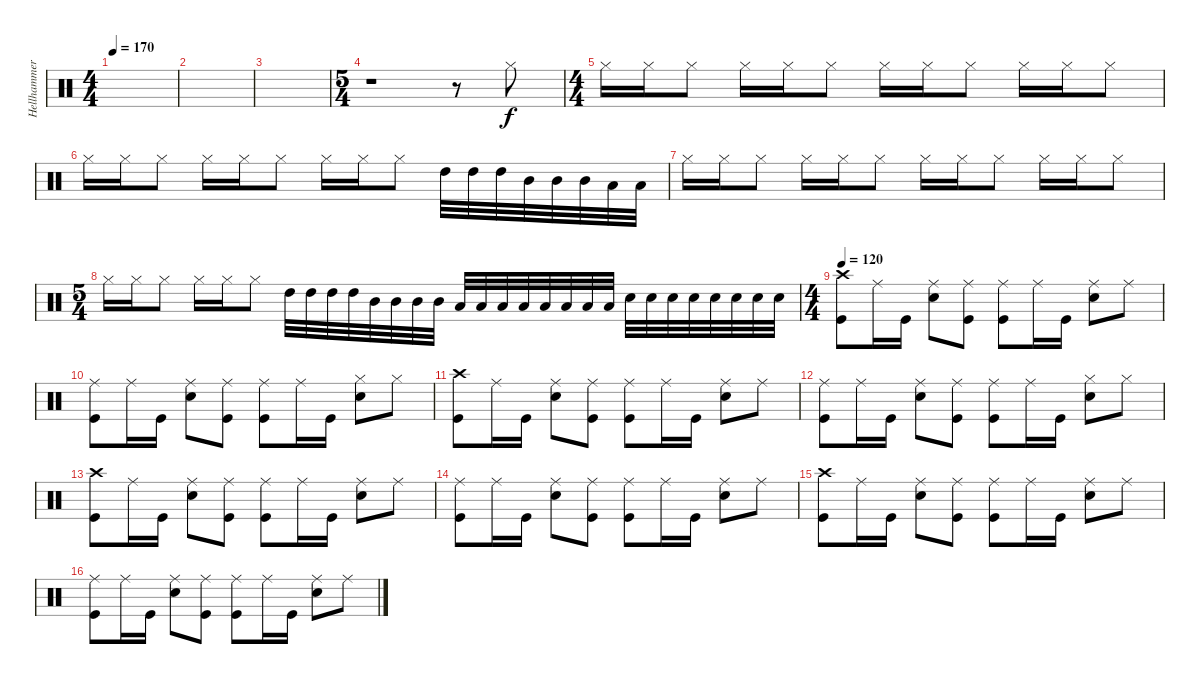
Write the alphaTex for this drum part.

\track ("Hellhammer" "Hellhammer") {instrument percussion}
\staff {score}
\articulation defaults
\ts (4 4)
\tempo 170
\clef neutral
\ks c
|
|
|
\ts (5 4)
r.1 r.8 "Hi-Hat (closed)".8 |
\ts (4 4)
"Hi-Hat (closed)".16 "Hi-Hat (closed)".16 "Hi-Hat (closed)".8 "Hi-Hat (closed)".16 "Hi-Hat (closed)".16 "Hi-Hat (closed)".8 "Hi-Hat (closed)".16 "Hi-Hat (closed)".16 "Hi-Hat (closed)".8 "Hi-Hat (closed)".16 "Hi-Hat (closed)".16 "Hi-Hat (closed)".8 |
"Hi-Hat (closed)".16 "Hi-Hat (closed)".16 "Hi-Hat (closed)".8 "Hi-Hat (closed)".16 "Hi-Hat (closed)".16 "Hi-Hat (closed)".8 "Hi-Hat (closed)".16 "Hi-Hat (closed)".16 "Hi-Hat (closed)".8 "High Tom (hit)".32 "High Tom (hit)".32 "High Tom (hit)".32 "Mid Tom (hit)".32 "Mid Tom (hit)".32 "Mid Tom (hit)".32 "Low Tom (hit)".32 "Low Tom (hit)".32 |
"Hi-Hat (closed)".16 "Hi-Hat (closed)".16 "Hi-Hat (closed)".8 "Hi-Hat (closed)".16 "Hi-Hat (closed)".16 "Hi-Hat (closed)".8 "Hi-Hat (closed)".16 "Hi-Hat (closed)".16 "Hi-Hat (closed)".8 "Hi-Hat (closed)".16 "Hi-Hat (closed)".16 "Hi-Hat (closed)".8 |
\ts (5 4)
"Hi-Hat (closed)".16 "Hi-Hat (closed)".16 "Hi-Hat (closed)".8 "Hi-Hat (closed)".16 "Hi-Hat (closed)".16 "Hi-Hat (closed)".8 "High Tom (hit)".32 "High Tom (hit)".32 "High Tom (hit)".32 "High Tom (hit)".32 "Mid Tom (hit)".32 "Mid Tom (hit)".32 "Mid Tom (hit)".32 "Mid Tom (hit)".32 "Low Tom (hit)".32 "Low Tom (hit)".32 "Low Tom (hit)".32 "Low Tom (hit)".32 "Low Tom (hit)".32 "Low Tom (hit)".32 "Low Tom (hit)".32 "Low Tom (hit)".32 "Electric Snare (hit)".32 "Electric Snare (hit)".32 "Electric Snare (hit)".32 "Electric Snare (hit)".32 "Electric Snare (hit)".32 "Electric Snare (hit)".32 "Electric Snare (hit)".32 "Electric Snare (hit)".32 |
\ts (4 4)
\tempo 120
("Crash high (hit)" "Kick (hit)").8 "Ride (middle)".16 "Kick (hit)".16 ("Ride (middle)" "Electric Snare (hit)").8 ("Ride (middle)" "Kick (hit)").8 ("Ride (middle)" "Kick (hit)").8 "Ride (middle)".16 "Kick (hit)".16 ("Ride (middle)" "Electric Snare (hit)").8 "Ride (middle)".8 |
("Ride (middle)" "Kick (hit)").8 "Ride (middle)".16 "Kick (hit)".16 ("Ride (middle)" "Electric Snare (hit)").8 ("Ride (middle)" "Kick (hit)").8 ("Ride (middle)" "Kick (hit)").8 "Ride (middle)".16 "Kick (hit)".16 ("Hi-Hat (closed)" "Electric Snare (hit)").8 "Hi-Hat (closed)".8 |
("Crash high (hit)" "Kick (hit)").8 "Ride (middle)".16 "Kick (hit)".16 ("Ride (middle)" "Electric Snare (hit)").8 ("Ride (middle)" "Kick (hit)").8 ("Ride (middle)" "Kick (hit)").8 "Ride (middle)".16 "Kick (hit)".16 ("Ride (middle)" "Electric Snare (hit)").8 "Ride (middle)".8 |
("Ride (middle)" "Kick (hit)").8 "Ride (middle)".16 "Kick (hit)".16 ("Ride (middle)" "Electric Snare (hit)").8 ("Ride (middle)" "Kick (hit)").8 ("Ride (middle)" "Kick (hit)").8 "Ride (middle)".16 "Kick (hit)".16 ("Hi-Hat (closed)" "Electric Snare (hit)").8 "Hi-Hat (closed)".8 |
("Crash high (hit)" "Kick (hit)").8 "Ride (middle)".16 "Kick (hit)".16 ("Ride (middle)" "Electric Snare (hit)").8 ("Ride (middle)" "Kick (hit)").8 ("Ride (middle)" "Kick (hit)").8 "Ride (middle)".16 "Kick (hit)".16 ("Ride (middle)" "Electric Snare (hit)").8 "Ride (middle)".8 |
("Ride (middle)" "Kick (hit)").8 "Ride (middle)".16 "Kick (hit)".16 ("Ride (middle)" "Electric Snare (hit)").8 ("Ride (middle)" "Kick (hit)").8 ("Ride (middle)" "Kick (hit)").8 "Ride (middle)".16 "Kick (hit)".16 ("Ride (middle)" "Electric Snare (hit)").8 "Ride (middle)".8 |
("Crash high (hit)" "Kick (hit)").8 "Ride (middle)".16 "Kick (hit)".16 ("Ride (middle)" "Electric Snare (hit)").8 ("Ride (middle)" "Kick (hit)").8 ("Ride (middle)" "Kick (hit)").8 "Ride (middle)".16 "Kick (hit)".16 ("Ride (middle)" "Electric Snare (hit)").8 "Ride (middle)".8 |
("Ride (middle)" "Kick (hit)").8 "Ride (middle)".16 "Kick (hit)".16 ("Ride (middle)" "Electric Snare (hit)").8 ("Ride (middle)" "Kick (hit)").8 ("Ride (middle)" "Kick (hit)").8 "Ride (middle)".16 "Kick (hit)".16 ("Ride (middle)" "Electric Snare (hit)").8 "Ride (middle)".8
